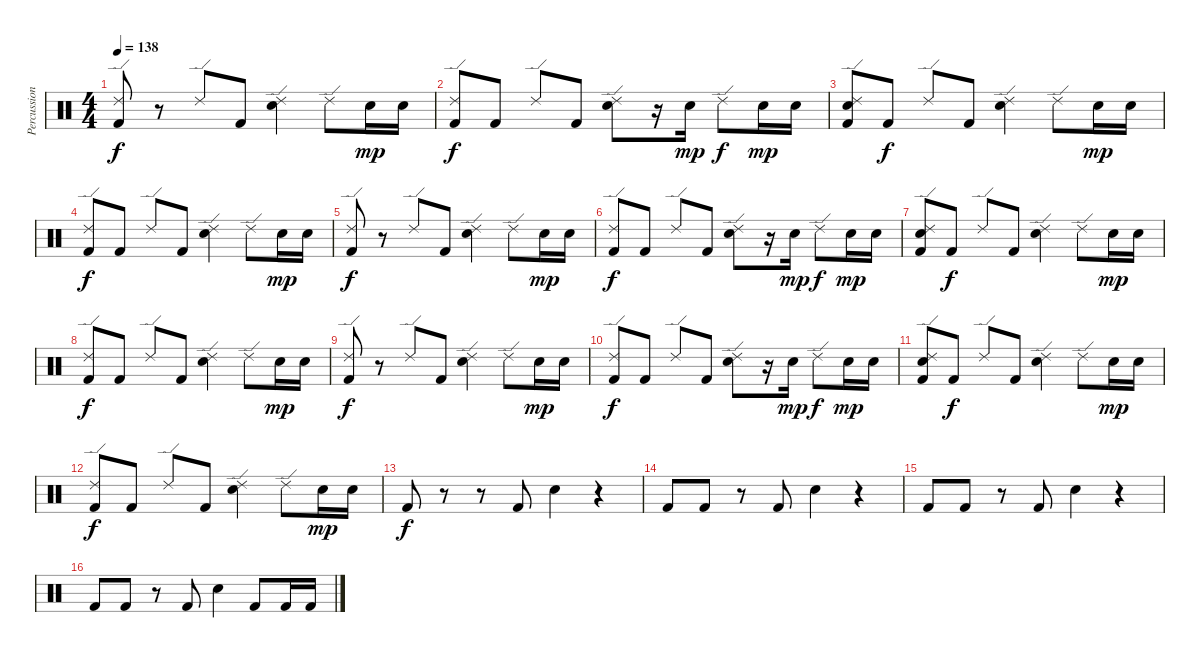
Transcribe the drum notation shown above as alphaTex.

\track ("Percussion" "Percussion") {instrument percussion}
\staff {score}
\articulation defaults
\ts (4 4)
\tempo 138
\clef neutral
\ks c
("Ride (edge) 2" "Kick (hit) 2").8{dy f} r.8 "Ride (edge) 2".8 "Kick (hit) 2".8 ("Ride (edge) 2" "Electric Snare (hit)").4 "Ride (edge) 2".8 "Electric Snare (hit)".16{dy mp} "Electric Snare (hit)".16 |
("Ride (edge) 2" "Kick (hit) 2").8{dy f} "Kick (hit) 2".8 "Ride (edge) 2".8 "Kick (hit) 2".8 ("Ride (edge) 2" "Electric Snare (hit)").8 r.16 "Electric Snare (hit)".16{dy mp} "Ride (edge) 2".8{dy f} "Electric Snare (hit)".16{dy mp} "Electric Snare (hit)".16 |
("Ride (edge) 2" "Electric Snare (hit)" "Kick (hit) 2").8 "Kick (hit) 2".8{dy f} "Ride (edge) 2".8 "Kick (hit) 2".8 ("Ride (edge) 2" "Electric Snare (hit)").4 "Ride (edge) 2".8 "Electric Snare (hit)".16{dy mp} "Electric Snare (hit)".16 |
("Ride (edge) 2" "Kick (hit) 2").8{dy f} "Kick (hit) 2".8 "Ride (edge) 2".8 "Kick (hit) 2".8 ("Ride (edge) 2" "Electric Snare (hit)").4 "Ride (edge) 2".8 "Electric Snare (hit)".16{dy mp} "Electric Snare (hit)".16 |
("Ride (edge) 2" "Kick (hit) 2").8{dy f} r.8 "Ride (edge) 2".8 "Kick (hit) 2".8 ("Ride (edge) 2" "Electric Snare (hit)").4 "Ride (edge) 2".8 "Electric Snare (hit)".16{dy mp} "Electric Snare (hit)".16 |
("Ride (edge) 2" "Kick (hit) 2").8{dy f} "Kick (hit) 2".8 "Ride (edge) 2".8 "Kick (hit) 2".8 ("Ride (edge) 2" "Electric Snare (hit)").8 r.16 "Electric Snare (hit)".16{dy mp} "Ride (edge) 2".8{dy f} "Electric Snare (hit)".16{dy mp} "Electric Snare (hit)".16 |
("Ride (edge) 2" "Electric Snare (hit)" "Kick (hit) 2").8 "Kick (hit) 2".8{dy f} "Ride (edge) 2".8 "Kick (hit) 2".8 ("Ride (edge) 2" "Electric Snare (hit)").4 "Ride (edge) 2".8 "Electric Snare (hit)".16{dy mp} "Electric Snare (hit)".16 |
("Ride (edge) 2" "Kick (hit) 2").8{dy f} "Kick (hit) 2".8 "Ride (edge) 2".8 "Kick (hit) 2".8 ("Ride (edge) 2" "Electric Snare (hit)").4 "Ride (edge) 2".8 "Electric Snare (hit)".16{dy mp} "Electric Snare (hit)".16 |
("Ride (edge) 2" "Kick (hit) 2").8{dy f} r.8 "Ride (edge) 2".8 "Kick (hit) 2".8 ("Ride (edge) 2" "Electric Snare (hit)").4 "Ride (edge) 2".8 "Electric Snare (hit)".16{dy mp} "Electric Snare (hit)".16 |
("Ride (edge) 2" "Kick (hit) 2").8{dy f} "Kick (hit) 2".8 "Ride (edge) 2".8 "Kick (hit) 2".8 ("Ride (edge) 2" "Electric Snare (hit)").8 r.16 "Electric Snare (hit)".16{dy mp} "Ride (edge) 2".8{dy f} "Electric Snare (hit)".16{dy mp} "Electric Snare (hit)".16 |
("Ride (edge) 2" "Electric Snare (hit)" "Kick (hit) 2").8 "Kick (hit) 2".8{dy f} "Ride (edge) 2".8 "Kick (hit) 2".8 ("Ride (edge) 2" "Electric Snare (hit)").4 "Ride (edge) 2".8 "Electric Snare (hit)".16{dy mp} "Electric Snare (hit)".16 |
("Ride (edge) 2" "Kick (hit) 2").8{dy f} "Kick (hit) 2".8 "Ride (edge) 2".8 "Kick (hit) 2".8 ("Ride (edge) 2" "Electric Snare (hit)").4 "Ride (edge) 2".8 "Electric Snare (hit)".16{dy mp} "Electric Snare (hit)".16 |
"Kick (hit) 2".8{dy f} r.8 r.8 "Kick (hit) 2".8 "Electric Snare (hit)".4 r.4 |
"Kick (hit) 2".8 "Kick (hit) 2".8 r.8 "Kick (hit) 2".8 "Electric Snare (hit)".4 r.4 |
"Kick (hit) 2".8 "Kick (hit) 2".8 r.8 "Kick (hit) 2".8 "Electric Snare (hit)".4 r.4 |
"Kick (hit) 2".8 "Kick (hit) 2".8 r.8 "Kick (hit) 2".8 "Electric Snare (hit)".4 "Kick (hit) 2".8 "Kick (hit) 2".16 "Kick (hit) 2".16
